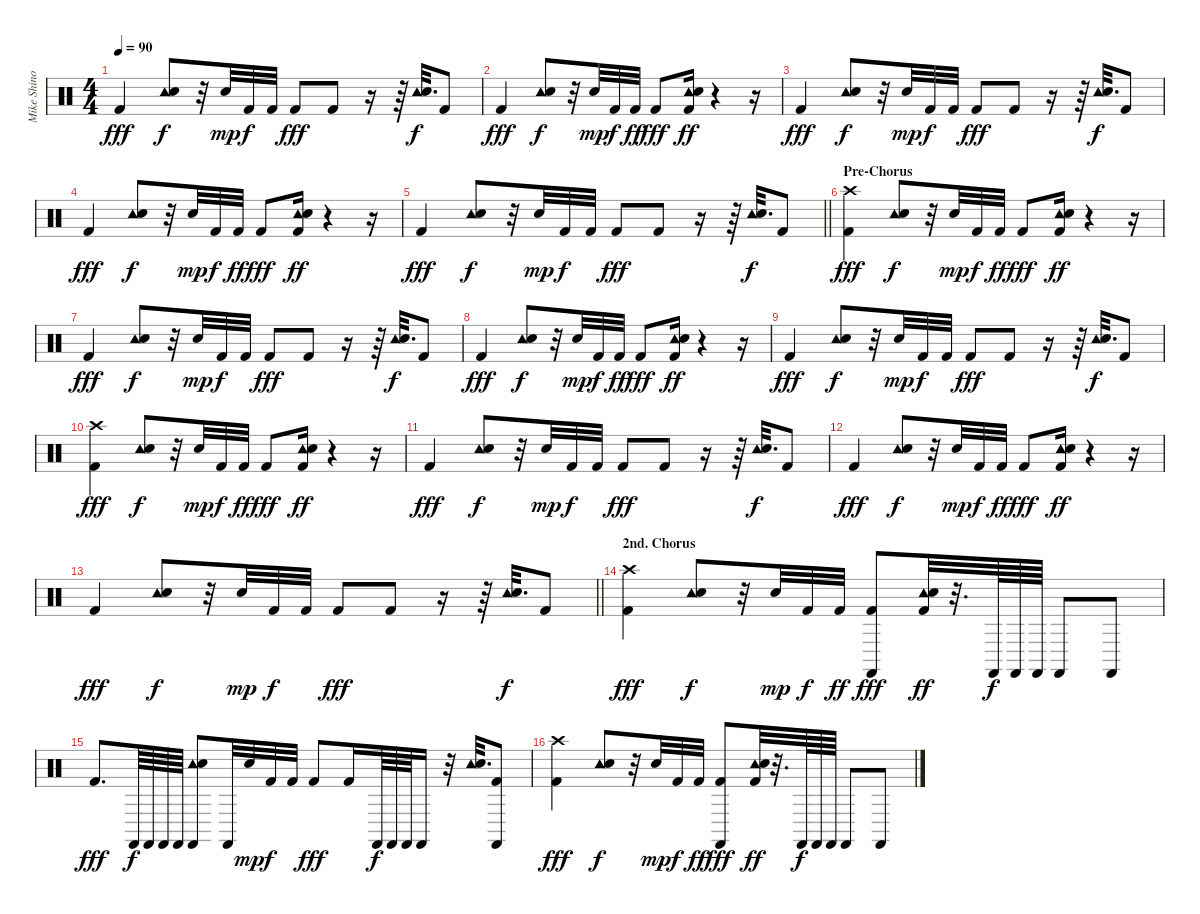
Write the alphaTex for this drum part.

\track ("Mike Shinoda - Percussion" "Mike Shino") {instrument percussion}
\staff {score}
\articulation defaults
\ts (4 4)
\tempo 90
\clef neutral
\ks c "Kick (hit) 2".4{dy fff}
("Tambourine (hit)" "Electric Snare (hit)").8{dy f} r.32 "Snare (hit) 2".32{dy mp} "Kick (hit) 2".32{dy f} "Kick (hit) 2".32 "Kick (hit) 2".8{dy fff} "Kick (hit) 2".8 r.16 r.64 ("Tambourine (hit)" "Electric Snare (hit)").32{d dy f} "Kick (hit) 2".8 |
"Kick (hit) 2".4{dy fff} ("Tambourine (hit)" "Electric Snare (hit)").8{dy f} r.32 "Snare (hit) 2".32{dy mp} "Kick (hit) 2".32{dy f} "Kick (hit) 2".32{dy ff} "Kick (hit) 2".8{dy fff} ("Tambourine (hit)" "Electric Snare (hit)" "Kick (hit) 2").16{dy ff} r.4 r.16 |
"Kick (hit) 2".4{dy fff} ("Tambourine (hit)" "Electric Snare (hit)").8{dy f} r.32 "Snare (hit) 2".32{dy mp} "Kick (hit) 2".32{dy f} "Kick (hit) 2".32 "Kick (hit) 2".8{dy fff} "Kick (hit) 2".8 r.16 r.64 ("Tambourine (hit)" "Electric Snare (hit)").32{d dy f} "Kick (hit) 2".8 |
"Kick (hit) 2".4{dy fff} ("Tambourine (hit)" "Electric Snare (hit)").8{dy f} r.32 "Snare (hit) 2".32{dy mp} "Kick (hit) 2".32{dy f} "Kick (hit) 2".32{dy ff} "Kick (hit) 2".8{dy fff} ("Tambourine (hit)" "Electric Snare (hit)" "Kick (hit) 2").16{dy ff} r.4 r.16 |
\barLineRight lightlight "Kick (hit) 2".4{dy fff}
("Tambourine (hit)" "Electric Snare (hit)").8{dy f} r.32 "Snare (hit) 2".32{dy mp} "Kick (hit) 2".32{dy f} "Kick (hit) 2".32 "Kick (hit) 2".8{dy fff} "Kick (hit) 2".8 r.16 r.64 ("Tambourine (hit)" "Electric Snare (hit)").32{d dy f} "Kick (hit) 2".8 |
\section ("" "Pre-Chorus")
("Crash high (hit)" "Kick (hit) 2").4{dy fff} ("Tambourine (hit)" "Electric Snare (hit)").8{dy f} r.32 "Snare (hit) 2".32{dy mp} "Kick (hit) 2".32{dy f} "Kick (hit) 2".32{dy ff} "Kick (hit) 2".8{dy fff} ("Tambourine (hit)" "Electric Snare (hit)" "Kick (hit) 2").16{dy ff} r.4 r.16 |
"Kick (hit) 2".4{dy fff} ("Tambourine (hit)" "Electric Snare (hit)").8{dy f} r.32 "Snare (hit) 2".32{dy mp} "Kick (hit) 2".32{dy f} "Kick (hit) 2".32 "Kick (hit) 2".8{dy fff} "Kick (hit) 2".8 r.16 r.64 ("Tambourine (hit)" "Electric Snare (hit)").32{d dy f} "Kick (hit) 2".8 |
"Kick (hit) 2".4{dy fff} ("Tambourine (hit)" "Electric Snare (hit)").8{dy f} r.32 "Snare (hit) 2".32{dy mp} "Kick (hit) 2".32{dy f} "Kick (hit) 2".32{dy ff} "Kick (hit) 2".8{dy fff} ("Tambourine (hit)" "Electric Snare (hit)" "Kick (hit) 2").16{dy ff} r.4 r.16 |
"Kick (hit) 2".4{dy fff} ("Tambourine (hit)" "Electric Snare (hit)").8{dy f} r.32 "Snare (hit) 2".32{dy mp} "Kick (hit) 2".32{dy f} "Kick (hit) 2".32 "Kick (hit) 2".8{dy fff} "Kick (hit) 2".8 r.16 r.64 ("Tambourine (hit)" "Electric Snare (hit)").32{d dy f} "Kick (hit) 2".8 |
("Crash high (hit)" "Kick (hit) 2").4{dy fff} ("Tambourine (hit)" "Electric Snare (hit)").8{dy f} r.32 "Snare (hit) 2".32{dy mp} "Kick (hit) 2".32{dy f} "Kick (hit) 2".32{dy ff} "Kick (hit) 2".8{dy fff} ("Tambourine (hit)" "Electric Snare (hit)" "Kick (hit) 2").16{dy ff} r.4 r.16 |
"Kick (hit) 2".4{dy fff} ("Tambourine (hit)" "Electric Snare (hit)").8{dy f} r.32 "Snare (hit) 2".32{dy mp} "Kick (hit) 2".32{dy f} "Kick (hit) 2".32 "Kick (hit) 2".8{dy fff} "Kick (hit) 2".8 r.16 r.64 ("Tambourine (hit)" "Electric Snare (hit)").32{d dy f} "Kick (hit) 2".8 |
"Kick (hit) 2".4{dy fff} ("Tambourine (hit)" "Electric Snare (hit)").8{dy f} r.32 "Snare (hit) 2".32{dy mp} "Kick (hit) 2".32{dy f} "Kick (hit) 2".32{dy ff} "Kick (hit) 2".8{dy fff} ("Tambourine (hit)" "Electric Snare (hit)" "Kick (hit) 2").16{dy ff} r.4 r.16 |
\barLineRight lightlight "Kick (hit) 2".4{dy fff}
("Tambourine (hit)" "Electric Snare (hit)").8{dy f} r.32 "Snare (hit) 2".32{dy mp} "Kick (hit) 2".32{dy f} "Kick (hit) 2".32 "Kick (hit) 2".8{dy fff} "Kick (hit) 2".8 r.16 r.64 ("Tambourine (hit)" "Electric Snare (hit)").32{d dy f} "Kick (hit) 2".8 |
\section ("" "2nd. Chorus")
("Crash high (hit)" "Kick (hit) 2").4{dy fff} ("Tambourine (hit)" "Electric Snare (hit)").8{dy f} r.32 "Snare (hit) 2".32{dy mp} "Kick (hit) 2".32{dy f} "Kick (hit) 2".32{dy ff} ("Castanets (hit)" "Kick (hit) 2").8{dy fff} ("Tambourine (hit)" "Electric Snare (hit)" "Kick (hit) 2").32{dy ff} r.32{d} "Castanets (hit)".64{dy f} "Castanets (hit)".64 "Castanets (hit)".64 "Castanets (hit)".8 "Castanets (hit)".8 |
"Kick (hit) 2".8{d dy fff} "Castanets (hit)".64{dy f} "Castanets (hit)".64 "Castanets (hit)".64 "Castanets (hit)".64 ("Castanets (hit)" "Tambourine (hit)" "Electric Snare (hit)").8 "Castanets (hit)".32 "Snare (hit) 2".32{dy mp} "Kick (hit) 2".32{dy f} "Kick (hit) 2".32 "Kick (hit) 2".8{dy fff} "Kick (hit) 2".16 "Castanets (hit)".64{dy f} "Castanets (hit)".64 "Castanets (hit)".64 "Castanets (hit)".16 r.32 ("Tambourine (hit)" "Electric Snare (hit)").32{d} ("Castanets (hit)" "Kick (hit) 2").8 |
("Crash high (hit)" "Kick (hit) 2").4{dy fff} ("Tambourine (hit)" "Electric Snare (hit)").8{dy f} r.32 "Snare (hit) 2".32{dy mp} "Kick (hit) 2".32{dy f} "Kick (hit) 2".32{dy ff} ("Castanets (hit)" "Kick (hit) 2").8{dy fff} ("Tambourine (hit)" "Electric Snare (hit)" "Kick (hit) 2").32{dy ff} r.32{d} "Castanets (hit)".64{dy f} "Castanets (hit)".64 "Castanets (hit)".64 "Castanets (hit)".8 "Castanets (hit)".8
